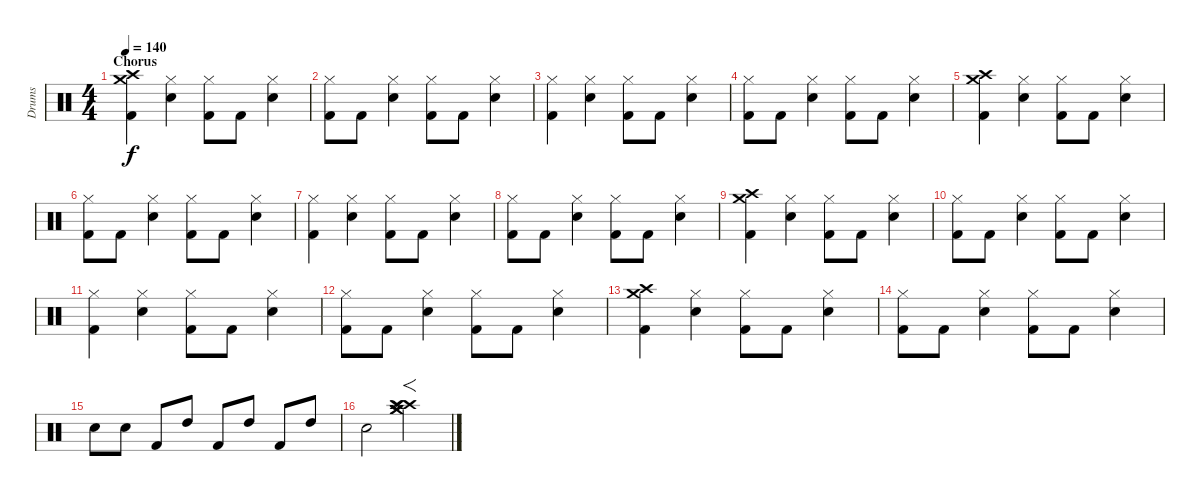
\track ("Drums" "Drums") {instrument percussion}
\staff {score}
\articulation defaults
\ts (4 4)
\section ("" "Chorus")
\tempo 140
\clef neutral
\ks c
("Crash medium (hit)" "Crash high (hit)" "Kick (hit) 2").4{dy f} ("Hi-Hat (closed)" "Snare (hit) 2").4 ("Hi-Hat (closed)" "Kick (hit) 2").8 "Kick (hit) 2".8 ("Hi-Hat (closed)" "Snare (hit) 2").4 |
("Hi-Hat (closed)" "Kick (hit) 2").8 "Kick (hit) 2".8 ("Hi-Hat (closed)" "Snare (hit) 2").4 ("Hi-Hat (closed)" "Kick (hit) 2").8 "Kick (hit) 2".8 ("Hi-Hat (closed)" "Snare (hit) 2").4 |
("Hi-Hat (closed)" "Kick (hit) 2").4 ("Hi-Hat (closed)" "Snare (hit) 2").4 ("Hi-Hat (closed)" "Kick (hit) 2").8 "Kick (hit) 2".8 ("Hi-Hat (closed)" "Snare (hit) 2").4 |
("Hi-Hat (closed)" "Kick (hit) 2").8 "Kick (hit) 2".8 ("Hi-Hat (closed)" "Snare (hit) 2").4 ("Hi-Hat (closed)" "Kick (hit) 2").8 "Kick (hit) 2".8 ("Hi-Hat (closed)" "Snare (hit) 2").4 |
("Crash medium (hit)" "Crash high (hit)" "Kick (hit) 2").4 ("Hi-Hat (closed)" "Snare (hit) 2").4 ("Hi-Hat (closed)" "Kick (hit) 2").8 "Kick (hit) 2".8 ("Hi-Hat (closed)" "Snare (hit) 2").4 |
("Hi-Hat (closed)" "Kick (hit) 2").8 "Kick (hit) 2".8 ("Hi-Hat (closed)" "Snare (hit) 2").4 ("Hi-Hat (closed)" "Kick (hit) 2").8 "Kick (hit) 2".8 ("Hi-Hat (closed)" "Snare (hit) 2").4 |
("Hi-Hat (closed)" "Kick (hit) 2").4 ("Hi-Hat (closed)" "Snare (hit) 2").4 ("Hi-Hat (closed)" "Kick (hit) 2").8 "Kick (hit) 2".8 ("Hi-Hat (closed)" "Snare (hit) 2").4 |
("Hi-Hat (closed)" "Kick (hit) 2").8 "Kick (hit) 2".8 ("Hi-Hat (closed)" "Snare (hit) 2").4 ("Hi-Hat (closed)" "Kick (hit) 2").8 "Kick (hit) 2".8 ("Hi-Hat (closed)" "Snare (hit) 2").4 |
("Crash medium (hit)" "Crash high (hit)" "Kick (hit) 2").4 ("Hi-Hat (closed)" "Snare (hit) 2").4 ("Hi-Hat (closed)" "Kick (hit) 2").8 "Kick (hit) 2".8 ("Hi-Hat (closed)" "Snare (hit) 2").4 |
("Hi-Hat (closed)" "Kick (hit) 2").8 "Kick (hit) 2".8 ("Hi-Hat (closed)" "Snare (hit) 2").4 ("Hi-Hat (closed)" "Kick (hit) 2").8 "Kick (hit) 2".8 ("Hi-Hat (closed)" "Snare (hit) 2").4 |
("Hi-Hat (closed)" "Kick (hit) 2").4 ("Hi-Hat (closed)" "Snare (hit) 2").4 ("Hi-Hat (closed)" "Kick (hit) 2").8 "Kick (hit) 2".8 ("Hi-Hat (closed)" "Snare (hit) 2").4 |
("Hi-Hat (closed)" "Kick (hit) 2").8 "Kick (hit) 2".8 ("Hi-Hat (closed)" "Snare (hit) 2").4 ("Hi-Hat (closed)" "Kick (hit) 2").8 "Kick (hit) 2".8 ("Hi-Hat (closed)" "Snare (hit) 2").4 |
("Crash medium (hit)" "Crash high (hit)" "Kick (hit) 2").4 ("Hi-Hat (closed)" "Snare (hit) 2").4 ("Hi-Hat (closed)" "Kick (hit) 2").8 "Kick (hit) 2".8 ("Hi-Hat (closed)" "Snare (hit) 2").4 |
("Hi-Hat (closed)" "Kick (hit) 2").8 "Kick (hit) 2".8 ("Hi-Hat (closed)" "Snare (hit) 2").4 ("Hi-Hat (closed)" "Kick (hit) 2").8 "Kick (hit) 2".8 ("Hi-Hat (closed)" "Snare (hit) 2").4 |
"Snare (hit) 2".8 "Snare (hit) 2".8 "Kick (hit) 2".8 "High Tom (hit)".8 "Kick (hit) 2".8 "High Tom (hit)".8 "Kick (hit) 2".8 "High Tom (hit)".8 |
"Snare (hit) 2".2 ("Crash high (hit)" "Splash (hit)" "Crash medium (hit)" "Crash medium (hit)" "Crash high (hit)" "Splash (hit)").2{f}
